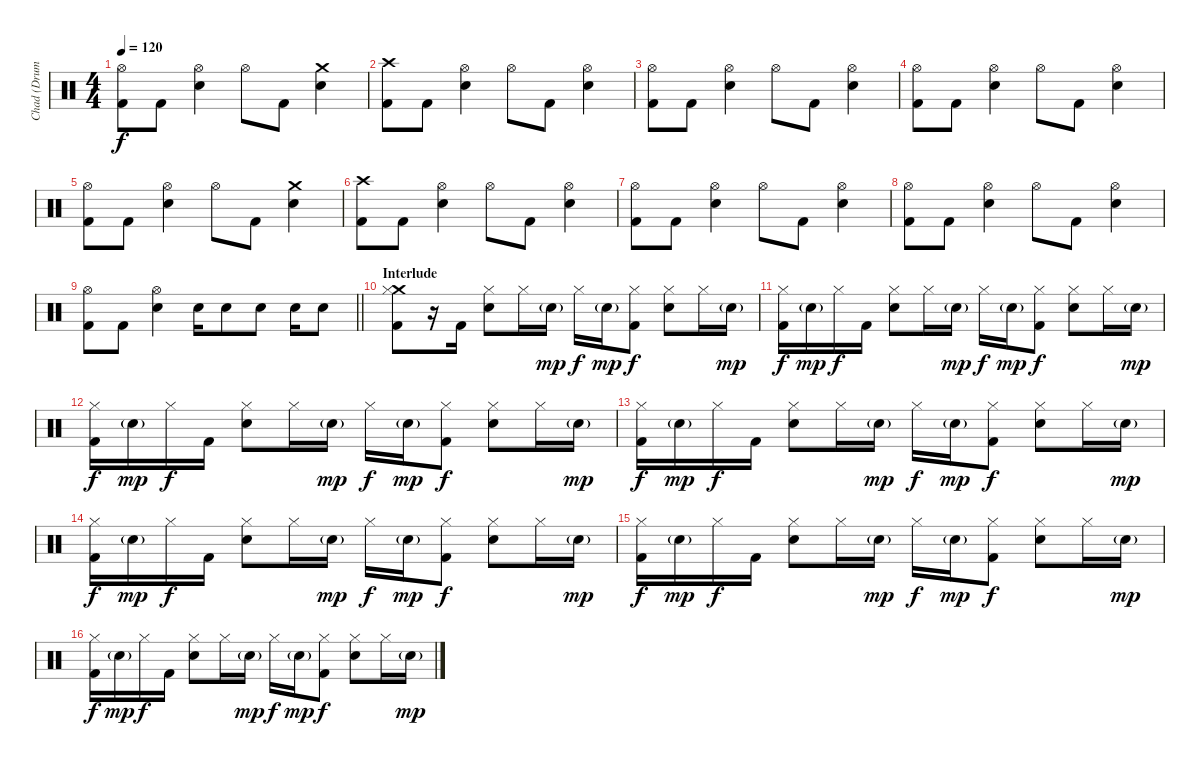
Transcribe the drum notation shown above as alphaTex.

\track ("Chad (Drums)" "Chad (Drum") {instrument percussion}
\staff {score}
\articulation defaults
\ts (4 4)
\tempo 120
\clef neutral
\ks c
("Hi-Hat (open)" "Kick (hit) 2").8{dy f} "Kick (hit) 2".8 ("Hi-Hat (open)" "Electric Snare (hit)").4 "Hi-Hat (open)".8 "Kick (hit) 2".8 ("Crash medium (hit)" "Electric Snare (hit)").4 |
("Crash high (hit)" "Kick (hit) 2").8 "Kick (hit) 2".8 ("Hi-Hat (open)" "Electric Snare (hit)").4 "Hi-Hat (open)".8 "Kick (hit) 2".8 ("Hi-Hat (open)" "Electric Snare (hit)").4 |
("Hi-Hat (open)" "Kick (hit) 2").8 "Kick (hit) 2".8 ("Hi-Hat (open)" "Electric Snare (hit)").4 "Hi-Hat (open)".8 "Kick (hit) 2".8 ("Hi-Hat (open)" "Electric Snare (hit)").4 |
("Hi-Hat (open)" "Kick (hit) 2").8 "Kick (hit) 2".8 ("Hi-Hat (open)" "Electric Snare (hit)").4 "Hi-Hat (open)".8 "Kick (hit) 2".8 ("Hi-Hat (open)" "Electric Snare (hit)").4 |
("Hi-Hat (open)" "Kick (hit) 2").8 "Kick (hit) 2".8 ("Hi-Hat (open)" "Electric Snare (hit)").4 "Hi-Hat (open)".8 "Kick (hit) 2".8 ("Crash medium (hit)" "Electric Snare (hit)").4 |
("Crash high (hit)" "Kick (hit) 2").8 "Kick (hit) 2".8 ("Hi-Hat (open)" "Electric Snare (hit)").4 "Hi-Hat (open)".8 "Kick (hit) 2".8 ("Hi-Hat (open)" "Electric Snare (hit)").4 |
("Hi-Hat (open)" "Kick (hit) 2").8 "Kick (hit) 2".8 ("Hi-Hat (open)" "Electric Snare (hit)").4 "Hi-Hat (open)".8 "Kick (hit) 2".8 ("Hi-Hat (open)" "Electric Snare (hit)").4 |
("Hi-Hat (open)" "Kick (hit) 2").8 "Kick (hit) 2".8 ("Hi-Hat (open)" "Electric Snare (hit)").4 "Hi-Hat (open)".8 "Kick (hit) 2".8 ("Hi-Hat (open)" "Electric Snare (hit)").4 |
\barLineRight lightlight
("Hi-Hat (open)" "Kick (hit) 2").8 "Kick (hit) 2".8 ("Hi-Hat (open)" "Electric Snare (hit)").4 "Electric Snare (hit)".16 "Electric Snare (hit)".8 "Electric Snare (hit)".8 "Electric Snare (hit)".16 "Electric Snare (hit)".8 |
\section ("" "Interlude")
("Crash medium (hit)" "Hi-Hat (closed)" "Kick (hit) 2").8 r.16 "Kick (hit) 2".16 ("Hi-Hat (closed)" "Electric Snare (hit)").8 "Hi-Hat (closed)".16 "Electric Snare (hit)"{g}.16{dy mp} "Hi-Hat (closed)".16{dy f} "Electric Snare (hit)"{g}.16{dy mp} ("Hi-Hat (closed)" "Kick (hit) 2").8{dy f} ("Hi-Hat (closed)" "Electric Snare (hit)").8 "Hi-Hat (closed)".16 "Electric Snare (hit)"{g}.16{dy mp} |
("Hi-Hat (closed)" "Kick (hit) 2").16{dy f} "Electric Snare (hit)"{g}.16{dy mp} "Hi-Hat (closed)".16{dy f} "Kick (hit) 2".16 ("Hi-Hat (closed)" "Electric Snare (hit)").8 "Hi-Hat (closed)".16 "Electric Snare (hit)"{g}.16{dy mp} "Hi-Hat (closed)".16{dy f} "Electric Snare (hit)"{g}.16{dy mp} ("Hi-Hat (closed)" "Kick (hit) 2").8{dy f} ("Hi-Hat (closed)" "Electric Snare (hit)").8 "Hi-Hat (closed)".16 "Electric Snare (hit)"{g}.16{dy mp} |
("Hi-Hat (closed)" "Kick (hit) 2").16{dy f} "Electric Snare (hit)"{g}.16{dy mp} "Hi-Hat (closed)".16{dy f} "Kick (hit) 2".16 ("Hi-Hat (closed)" "Electric Snare (hit)").8 "Hi-Hat (closed)".16 "Electric Snare (hit)"{g}.16{dy mp} "Hi-Hat (closed)".16{dy f} "Electric Snare (hit)"{g}.16{dy mp} ("Hi-Hat (closed)" "Kick (hit) 2").8{dy f} ("Hi-Hat (closed)" "Electric Snare (hit)").8 "Hi-Hat (closed)".16 "Electric Snare (hit)"{g}.16{dy mp} |
("Hi-Hat (closed)" "Kick (hit) 2").16{dy f} "Electric Snare (hit)"{g}.16{dy mp} "Hi-Hat (closed)".16{dy f} "Kick (hit) 2".16 ("Hi-Hat (closed)" "Electric Snare (hit)").8 "Hi-Hat (closed)".16 "Electric Snare (hit)"{g}.16{dy mp} "Hi-Hat (closed)".16{dy f} "Electric Snare (hit)"{g}.16{dy mp} ("Hi-Hat (closed)" "Kick (hit) 2").8{dy f} ("Hi-Hat (closed)" "Electric Snare (hit)").8 "Hi-Hat (closed)".16 "Electric Snare (hit)"{g}.16{dy mp} |
("Hi-Hat (closed)" "Kick (hit) 2").16{dy f} "Electric Snare (hit)"{g}.16{dy mp} "Hi-Hat (closed)".16{dy f} "Kick (hit) 2".16 ("Hi-Hat (closed)" "Electric Snare (hit)").8 "Hi-Hat (closed)".16 "Electric Snare (hit)"{g}.16{dy mp} "Hi-Hat (closed)".16{dy f} "Electric Snare (hit)"{g}.16{dy mp} ("Hi-Hat (closed)" "Kick (hit) 2").8{dy f} ("Hi-Hat (closed)" "Electric Snare (hit)").8 "Hi-Hat (closed)".16 "Electric Snare (hit)"{g}.16{dy mp} |
("Hi-Hat (closed)" "Kick (hit) 2").16{dy f} "Electric Snare (hit)"{g}.16{dy mp} "Hi-Hat (closed)".16{dy f} "Kick (hit) 2".16 ("Hi-Hat (closed)" "Electric Snare (hit)").8 "Hi-Hat (closed)".16 "Electric Snare (hit)"{g}.16{dy mp} "Hi-Hat (closed)".16{dy f} "Electric Snare (hit)"{g}.16{dy mp} ("Hi-Hat (closed)" "Kick (hit) 2").8{dy f} ("Hi-Hat (closed)" "Electric Snare (hit)").8 "Hi-Hat (closed)".16 "Electric Snare (hit)"{g}.16{dy mp} |
("Hi-Hat (closed)" "Kick (hit) 2").16{dy f} "Electric Snare (hit)"{g}.16{dy mp} "Hi-Hat (closed)".16{dy f} "Kick (hit) 2".16 ("Hi-Hat (closed)" "Electric Snare (hit)").8 "Hi-Hat (closed)".16 "Electric Snare (hit)"{g}.16{dy mp} "Hi-Hat (closed)".16{dy f} "Electric Snare (hit)"{g}.16{dy mp} ("Hi-Hat (closed)" "Kick (hit) 2").8{dy f} ("Hi-Hat (closed)" "Electric Snare (hit)").8 "Hi-Hat (closed)".16 "Electric Snare (hit)"{g}.16{dy mp}
